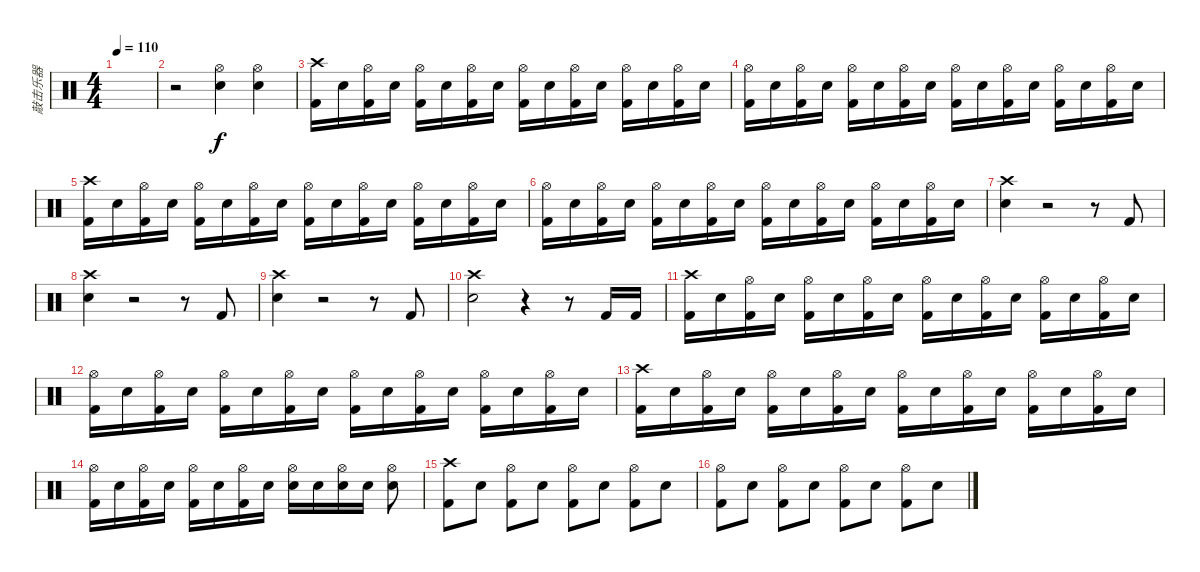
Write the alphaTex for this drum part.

\track ("敲击乐器" "敲击乐器") {instrument percussion}
\staff {score}
\articulation defaults
\ts (4 4)
\tempo 110
\clef neutral
\ks c
|
r.2 ("Hi-Hat (open)" "Snare (hit) 2").4 ("Hi-Hat (open)" "Snare (hit) 2").4 |
("Crash high (hit)" "Kick (hit) 2").16 "Snare (hit) 2".16 ("Hi-Hat (open)" "Kick (hit) 2").16 "Snare (hit) 2".16 ("Hi-Hat (open)" "Kick (hit) 2").16 "Snare (hit) 2".16 ("Hi-Hat (open)" "Kick (hit) 2").16 "Snare (hit) 2".16 ("Hi-Hat (open)" "Kick (hit) 2").16 "Snare (hit) 2".16 ("Hi-Hat (open)" "Kick (hit) 2").16 "Snare (hit) 2".16 ("Hi-Hat (open)" "Kick (hit) 2").16 "Snare (hit) 2".16 ("Hi-Hat (open)" "Kick (hit) 2").16 "Snare (hit) 2".16 |
("Hi-Hat (open)" "Kick (hit) 2").16 "Snare (hit) 2".16 ("Hi-Hat (open)" "Kick (hit) 2").16 "Snare (hit) 2".16 ("Hi-Hat (open)" "Kick (hit) 2").16 "Snare (hit) 2".16 ("Hi-Hat (open)" "Kick (hit) 2").16 "Snare (hit) 2".16 ("Hi-Hat (open)" "Kick (hit) 2").16 "Snare (hit) 2".16 ("Hi-Hat (open)" "Kick (hit) 2").16 "Snare (hit) 2".16 ("Hi-Hat (open)" "Kick (hit) 2").16 "Snare (hit) 2".16 ("Hi-Hat (open)" "Kick (hit) 2").16 "Snare (hit) 2".16 |
("Crash high (hit)" "Kick (hit) 2").16 "Snare (hit) 2".16 ("Hi-Hat (open)" "Kick (hit) 2").16 "Snare (hit) 2".16 ("Hi-Hat (open)" "Kick (hit) 2").16 "Snare (hit) 2".16 ("Hi-Hat (open)" "Kick (hit) 2").16 "Snare (hit) 2".16 ("Hi-Hat (open)" "Kick (hit) 2").16 "Snare (hit) 2".16 ("Hi-Hat (open)" "Kick (hit) 2").16 "Snare (hit) 2".16 ("Hi-Hat (open)" "Kick (hit) 2").16 "Snare (hit) 2".16 ("Hi-Hat (open)" "Kick (hit) 2").16 "Snare (hit) 2".16 |
("Hi-Hat (open)" "Kick (hit) 2").16 "Snare (hit) 2".16 ("Hi-Hat (open)" "Kick (hit) 2").16 "Snare (hit) 2".16 ("Hi-Hat (open)" "Kick (hit) 2").16 "Snare (hit) 2".16 ("Hi-Hat (open)" "Kick (hit) 2").16 "Snare (hit) 2".16 ("Hi-Hat (open)" "Kick (hit) 2").16 "Snare (hit) 2".16 ("Hi-Hat (open)" "Kick (hit) 2").16 "Snare (hit) 2".16 ("Hi-Hat (open)" "Kick (hit) 2").16 "Snare (hit) 2".16 ("Hi-Hat (open)" "Kick (hit) 2").16 "Snare (hit) 2".16 |
("Crash high (hit)" "Snare (hit) 2").4 r.2 r.8 "Kick (hit) 2".8 |
("Crash high (hit)" "Snare (hit) 2").4 r.2 r.8 "Kick (hit) 2".8 |
("Crash high (hit)" "Snare (hit) 2").4 r.2 r.8 "Kick (hit) 2".8 |
("Crash high (hit)" "Snare (hit) 2").2 r.4 r.8 "Kick (hit) 2".16 "Kick (hit) 2".16 |
("Crash high (hit)" "Kick (hit) 2").16 "Snare (hit) 2".16 ("Hi-Hat (open)" "Kick (hit) 2").16 "Snare (hit) 2".16 ("Hi-Hat (open)" "Kick (hit) 2").16 "Snare (hit) 2".16 ("Hi-Hat (open)" "Kick (hit) 2").16 "Snare (hit) 2".16 ("Hi-Hat (open)" "Kick (hit) 2").16 "Snare (hit) 2".16 ("Hi-Hat (open)" "Kick (hit) 2").16 "Snare (hit) 2".16 ("Hi-Hat (open)" "Kick (hit) 2").16 "Snare (hit) 2".16 ("Hi-Hat (open)" "Kick (hit) 2").16 "Snare (hit) 2".16 |
("Hi-Hat (open)" "Kick (hit) 2").16 "Snare (hit) 2".16 ("Hi-Hat (open)" "Kick (hit) 2").16 "Snare (hit) 2".16 ("Hi-Hat (open)" "Kick (hit) 2").16 "Snare (hit) 2".16 ("Hi-Hat (open)" "Kick (hit) 2").16 "Snare (hit) 2".16 ("Hi-Hat (open)" "Kick (hit) 2").16 "Snare (hit) 2".16 ("Hi-Hat (open)" "Kick (hit) 2").16 "Snare (hit) 2".16 ("Hi-Hat (open)" "Kick (hit) 2").16 "Snare (hit) 2".16 ("Hi-Hat (open)" "Kick (hit) 2").16 "Snare (hit) 2".16 |
("Crash high (hit)" "Kick (hit) 2").16 "Snare (hit) 2".16 ("Hi-Hat (open)" "Kick (hit) 2").16 "Snare (hit) 2".16 ("Hi-Hat (open)" "Kick (hit) 2").16 "Snare (hit) 2".16 ("Hi-Hat (open)" "Kick (hit) 2").16 "Snare (hit) 2".16 ("Hi-Hat (open)" "Kick (hit) 2").16 "Snare (hit) 2".16 ("Hi-Hat (open)" "Kick (hit) 2").16 "Snare (hit) 2".16 ("Hi-Hat (open)" "Kick (hit) 2").16 "Snare (hit) 2".16 ("Hi-Hat (open)" "Kick (hit) 2").16 "Snare (hit) 2".16 |
("Hi-Hat (open)" "Kick (hit) 2").16 "Snare (hit) 2".16 ("Hi-Hat (open)" "Kick (hit) 2").16 "Snare (hit) 2".16 ("Hi-Hat (open)" "Kick (hit) 2").16 "Snare (hit) 2".16 ("Hi-Hat (open)" "Kick (hit) 2").16 "Snare (hit) 2".16 ("Hi-Hat (open)" "Snare (hit) 2").16 "Snare (hit) 2".16 ("Hi-Hat (open)" "Snare (hit) 2").16 "Snare (hit) 2".16 ("Hi-Hat (open)" "Snare (hit) 2").8 |
("Crash high (hit)" "Kick (hit) 2").8 "Snare (hit) 2".8 ("Hi-Hat (open)" "Kick (hit) 2").8 "Snare (hit) 2".8 ("Hi-Hat (open)" "Kick (hit) 2").8 "Snare (hit) 2".8 ("Hi-Hat (open)" "Kick (hit) 2").8 "Snare (hit) 2".8 |
("Hi-Hat (open)" "Kick (hit) 2").8 "Snare (hit) 2".8 ("Hi-Hat (open)" "Kick (hit) 2").8 "Snare (hit) 2".8 ("Hi-Hat (open)" "Kick (hit) 2").8 "Snare (hit) 2".8 ("Hi-Hat (open)" "Kick (hit) 2").8 "Snare (hit) 2".8
